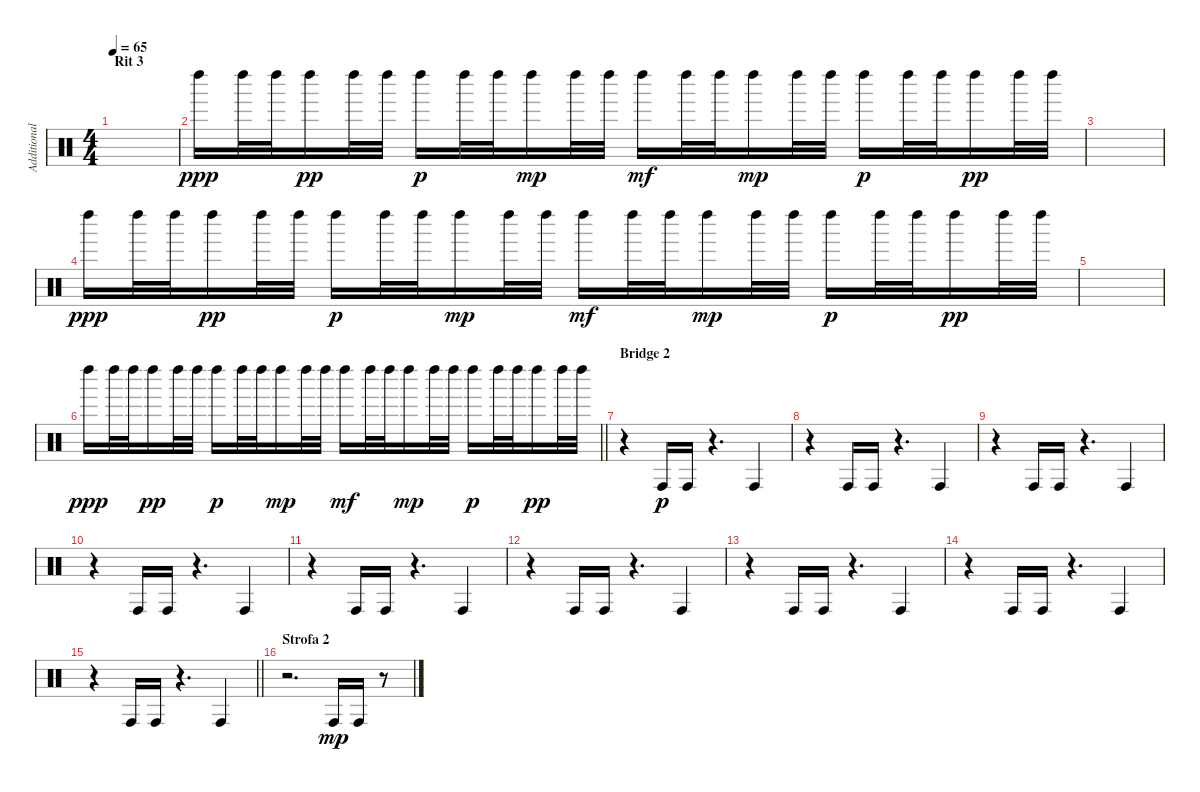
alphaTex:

\track ("Additional Percussions" "Additional") {instrument percussion}
\staff {score}
\articulation defaults
\ts (4 4)
\section ("" "Rit 3")
\tempo 65
\clef neutral
\ks c
|
"Left Maraca (hit)".16{dy ppp} "Left Maraca (hit)".32 "Left Maraca (hit)".32 "Left Maraca (hit)".16{dy pp} "Left Maraca (hit)".32 "Left Maraca (hit)".32 "Left Maraca (hit)".16{dy p} "Left Maraca (hit)".32 "Left Maraca (hit)".32 "Left Maraca (hit)".16{dy mp} "Left Maraca (hit)".32 "Left Maraca (hit)".32 "Left Maraca (hit)".16{dy mf} "Left Maraca (hit)".32 "Left Maraca (hit)".32 "Left Maraca (hit)".16{dy mp} "Left Maraca (hit)".32 "Left Maraca (hit)".32 "Left Maraca (hit)".16{dy p} "Left Maraca (hit)".32 "Left Maraca (hit)".32 "Left Maraca (hit)".16{dy pp} "Left Maraca (hit)".32 "Left Maraca (hit)".32 |
|
"Left Maraca (hit)".16{dy ppp} "Left Maraca (hit)".32 "Left Maraca (hit)".32 "Left Maraca (hit)".16{dy pp} "Left Maraca (hit)".32 "Left Maraca (hit)".32 "Left Maraca (hit)".16{dy p} "Left Maraca (hit)".32 "Left Maraca (hit)".32 "Left Maraca (hit)".16{dy mp} "Left Maraca (hit)".32 "Left Maraca (hit)".32 "Left Maraca (hit)".16{dy mf} "Left Maraca (hit)".32 "Left Maraca (hit)".32 "Left Maraca (hit)".16{dy mp} "Left Maraca (hit)".32 "Left Maraca (hit)".32 "Left Maraca (hit)".16{dy p} "Left Maraca (hit)".32 "Left Maraca (hit)".32 "Left Maraca (hit)".16{dy pp} "Left Maraca (hit)".32 "Left Maraca (hit)".32 |
|
\barLineRight lightlight "Left Maraca (hit)".16{dy ppp} "Left Maraca (hit)".32 "Left Maraca (hit)".32 "Left Maraca (hit)".16{dy pp} "Left Maraca (hit)".32 "Left Maraca (hit)".32 "Left Maraca (hit)".16{dy p} "Left Maraca (hit)".32 "Left Maraca (hit)".32 "Left Maraca (hit)".16{dy mp} "Left Maraca (hit)".32 "Left Maraca (hit)".32 "Left Maraca (hit)".16{dy mf} "Left Maraca (hit)".32 "Left Maraca (hit)".32 "Left Maraca (hit)".16{dy mp} "Left Maraca (hit)".32 "Left Maraca (hit)".32 "Left Maraca (hit)".16{dy p} "Left Maraca (hit)".32 "Left Maraca (hit)".32 "Left Maraca (hit)".16{dy pp} "Left Maraca (hit)".32 "Left Maraca (hit)".32
|
\section ("" "Bridge 2")
r.4 "Conga high (hit)".16{dy p} "Conga high (hit)".16 r.4{d} "Conga high (hit)".4 |
r.4 "Conga high (hit)".16 "Conga high (hit)".16 r.4{d} "Conga high (hit)".4 |
r.4 "Conga high (hit)".16 "Conga high (hit)".16 r.4{d} "Conga high (hit)".4 |
r.4 "Conga high (hit)".16 "Conga high (hit)".16 r.4{d} "Conga high (hit)".4 |
r.4 "Conga high (hit)".16 "Conga high (hit)".16 r.4{d} "Conga high (hit)".4 |
r.4 "Conga high (hit)".16 "Conga high (hit)".16 r.4{d} "Conga high (hit)".4 |
r.4 "Conga high (hit)".16 "Conga high (hit)".16 r.4{d} "Conga high (hit)".4 |
r.4 "Conga high (hit)".16 "Conga high (hit)".16 r.4{d} "Conga high (hit)".4 |
\barLineRight lightlight
r.4 "Conga high (hit)".16 "Conga high (hit)".16 r.4{d} "Conga high (hit)".4 |
\section ("" "Strofa 2")
r.2{d} "Conga high (hit)".16{dy mp} "Conga high (hit)".16 r.8
